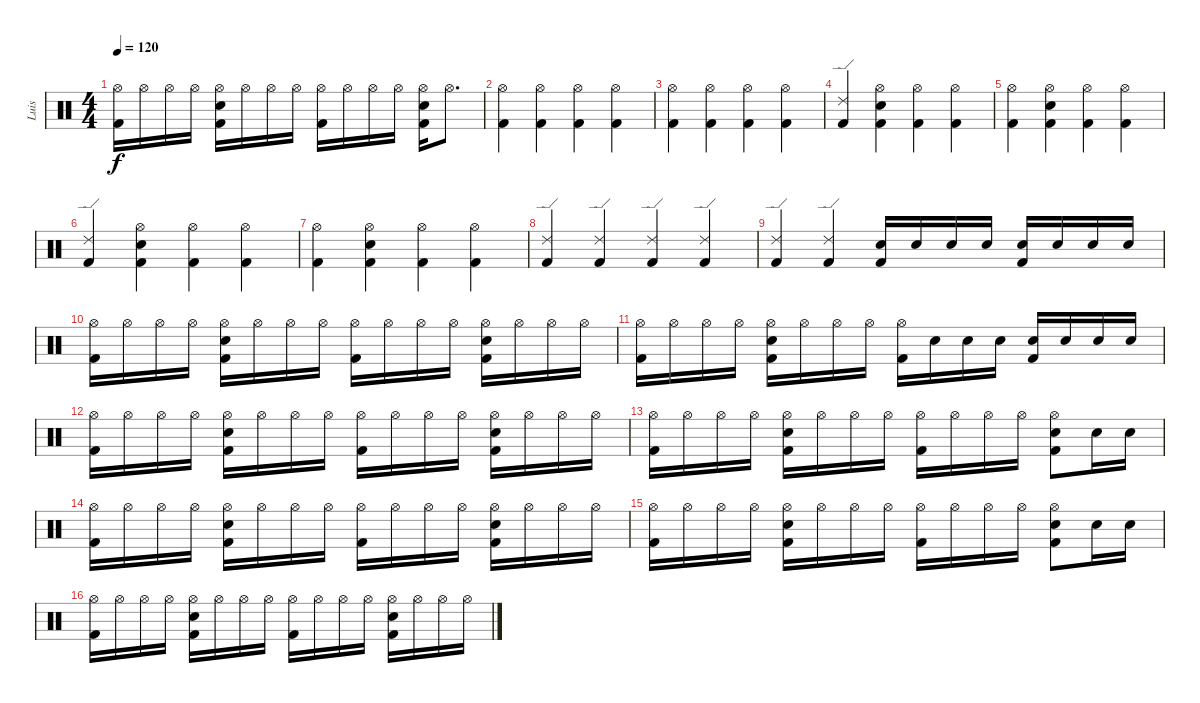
\track ("Luis" "Luis") {instrument percussion}
\staff {score}
\articulation defaults
\ts (4 4)
\tempo 120
\clef neutral
\ks c
("Hi-Hat (open)" "Kick (hit) 2").16{dy f} "Hi-Hat (open)".16 "Hi-Hat (open)".16 "Hi-Hat (open)".16 ("Hi-Hat (open)" "Electric Snare (hit)" "Kick (hit) 2").16 "Hi-Hat (open)".16 "Hi-Hat (open)".16 "Hi-Hat (open)".16 ("Hi-Hat (open)" "Kick (hit) 2").16 "Hi-Hat (open)".16 "Hi-Hat (open)".16 "Hi-Hat (open)".16 ("Hi-Hat (open)" "Electric Snare (hit)" "Kick (hit) 2").16 "Hi-Hat (open)".8{d} |
("Hi-Hat (open)" "Kick (hit) 2").4 ("Hi-Hat (open)" "Kick (hit) 2").4 ("Hi-Hat (open)" "Kick (hit) 2").4 ("Hi-Hat (open)" "Kick (hit) 2").4 |
("Hi-Hat (open)" "Kick (hit) 2").4 ("Hi-Hat (open)" "Kick (hit) 2").4 ("Hi-Hat (open)" "Kick (hit) 2").4 ("Hi-Hat (open)" "Kick (hit) 2").4 |
("Ride (edge) 2" "Kick (hit) 2").4 ("Hi-Hat (open)" "Electric Snare (hit)" "Kick (hit) 2").4 ("Hi-Hat (open)" "Kick (hit) 2").4 ("Hi-Hat (open)" "Kick (hit) 2").4 |
("Hi-Hat (open)" "Kick (hit) 2").4 ("Hi-Hat (open)" "Electric Snare (hit)" "Kick (hit) 2").4 ("Hi-Hat (open)" "Kick (hit) 2").4 ("Hi-Hat (open)" "Kick (hit) 2").4 |
("Ride (edge) 2" "Kick (hit) 2").4 ("Hi-Hat (open)" "Electric Snare (hit)" "Kick (hit) 2").4 ("Hi-Hat (open)" "Kick (hit) 2").4 ("Hi-Hat (open)" "Kick (hit) 2").4 |
("Hi-Hat (open)" "Kick (hit) 2").4 ("Hi-Hat (open)" "Electric Snare (hit)" "Kick (hit) 2").4 ("Hi-Hat (open)" "Kick (hit) 2").4 ("Hi-Hat (open)" "Kick (hit) 2").4 |
("Ride (edge) 2" "Kick (hit) 2").4 ("Ride (edge) 2" "Kick (hit) 2").4 ("Ride (edge) 2" "Kick (hit) 2").4 ("Ride (edge) 2" "Kick (hit) 2").4 |
("Ride (edge) 2" "Kick (hit) 2").4 ("Ride (edge) 2" "Kick (hit) 2").4 ("Electric Snare (hit)" "Kick (hit) 2").16 "Electric Snare (hit)".16 "Electric Snare (hit)".16 "Electric Snare (hit)".16 ("Electric Snare (hit)" "Kick (hit) 2").16 "Electric Snare (hit)".16 "Electric Snare (hit)".16 "Electric Snare (hit)".16 |
("Hi-Hat (open)" "Kick (hit) 2").16 "Hi-Hat (open)".16 "Hi-Hat (open)".16 "Hi-Hat (open)".16 ("Hi-Hat (open)" "Electric Snare (hit)" "Kick (hit) 2").16 "Hi-Hat (open)".16 "Hi-Hat (open)".16 "Hi-Hat (open)".16 ("Hi-Hat (open)" "Kick (hit) 2").16 "Hi-Hat (open)".16 "Hi-Hat (open)".16 "Hi-Hat (open)".16 ("Hi-Hat (open)" "Electric Snare (hit)" "Kick (hit) 2").16 "Hi-Hat (open)".16 "Hi-Hat (open)".16 "Hi-Hat (open)".16 |
("Hi-Hat (open)" "Kick (hit) 2").16 "Hi-Hat (open)".16 "Hi-Hat (open)".16 "Hi-Hat (open)".16 ("Hi-Hat (open)" "Electric Snare (hit)" "Kick (hit) 2").16 "Hi-Hat (open)".16 "Hi-Hat (open)".16 "Hi-Hat (open)".16 ("Hi-Hat (open)" "Kick (hit) 2").16 "Electric Snare (hit)".16 "Electric Snare (hit)".16 "Electric Snare (hit)".16 ("Electric Snare (hit)" "Kick (hit) 2").16 "Electric Snare (hit)".16 "Electric Snare (hit)".16 "Electric Snare (hit)".16 |
("Hi-Hat (open)" "Kick (hit) 2").16 "Hi-Hat (open)".16 "Hi-Hat (open)".16 "Hi-Hat (open)".16 ("Hi-Hat (open)" "Electric Snare (hit)" "Kick (hit) 2").16 "Hi-Hat (open)".16 "Hi-Hat (open)".16 "Hi-Hat (open)".16 ("Hi-Hat (open)" "Kick (hit) 2").16 "Hi-Hat (open)".16 "Hi-Hat (open)".16 "Hi-Hat (open)".16 ("Hi-Hat (open)" "Electric Snare (hit)" "Kick (hit) 2").16 "Hi-Hat (open)".16 "Hi-Hat (open)".16 "Hi-Hat (open)".16 |
("Hi-Hat (open)" "Kick (hit) 2").16 "Hi-Hat (open)".16 "Hi-Hat (open)".16 "Hi-Hat (open)".16 ("Hi-Hat (open)" "Electric Snare (hit)" "Kick (hit) 2").16 "Hi-Hat (open)".16 "Hi-Hat (open)".16 "Hi-Hat (open)".16 ("Hi-Hat (open)" "Kick (hit) 2").16 "Hi-Hat (open)".16 "Hi-Hat (open)".16 "Hi-Hat (open)".16 ("Hi-Hat (open)" "Electric Snare (hit)" "Kick (hit) 2").8 "Electric Snare (hit)".16 "Electric Snare (hit)".16 |
("Hi-Hat (open)" "Kick (hit) 2").16 "Hi-Hat (open)".16 "Hi-Hat (open)".16 "Hi-Hat (open)".16 ("Hi-Hat (open)" "Electric Snare (hit)" "Kick (hit) 2").16 "Hi-Hat (open)".16 "Hi-Hat (open)".16 "Hi-Hat (open)".16 ("Hi-Hat (open)" "Kick (hit) 2").16 "Hi-Hat (open)".16 "Hi-Hat (open)".16 "Hi-Hat (open)".16 ("Hi-Hat (open)" "Electric Snare (hit)" "Kick (hit) 2").16 "Hi-Hat (open)".16 "Hi-Hat (open)".16 "Hi-Hat (open)".16 |
("Hi-Hat (open)" "Kick (hit) 2").16 "Hi-Hat (open)".16 "Hi-Hat (open)".16 "Hi-Hat (open)".16 ("Hi-Hat (open)" "Electric Snare (hit)" "Kick (hit) 2").16 "Hi-Hat (open)".16 "Hi-Hat (open)".16 "Hi-Hat (open)".16 ("Hi-Hat (open)" "Kick (hit) 2").16 "Hi-Hat (open)".16 "Hi-Hat (open)".16 "Hi-Hat (open)".16 ("Hi-Hat (open)" "Electric Snare (hit)" "Kick (hit) 2").8 "Electric Snare (hit)".16 "Electric Snare (hit)".16 |
("Hi-Hat (open)" "Kick (hit) 2").16 "Hi-Hat (open)".16 "Hi-Hat (open)".16 "Hi-Hat (open)".16 ("Hi-Hat (open)" "Electric Snare (hit)" "Kick (hit) 2").16 "Hi-Hat (open)".16 "Hi-Hat (open)".16 "Hi-Hat (open)".16 ("Hi-Hat (open)" "Kick (hit) 2").16 "Hi-Hat (open)".16 "Hi-Hat (open)".16 "Hi-Hat (open)".16 ("Hi-Hat (open)" "Electric Snare (hit)" "Kick (hit) 2").16 "Hi-Hat (open)".16 "Hi-Hat (open)".16 "Hi-Hat (open)".16
